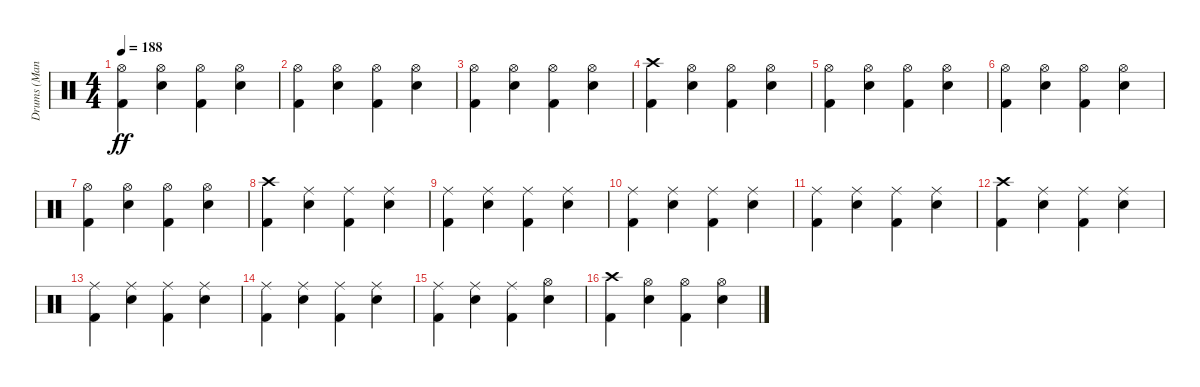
\track ("Drums (Manheim)" "Drums (Man") {instrument percussion}
\staff {score}
\articulation defaults
\ts (4 4)
\tempo 188
\clef neutral
\ks c
("Hi-Hat (open)" "Kick (hit) 2").4{dy ff} ("Hi-Hat (open)" "Electric Snare (hit)").4 ("Hi-Hat (open)" "Kick (hit) 2").4 ("Hi-Hat (open)" "Electric Snare (hit)").4 |
("Hi-Hat (open)" "Kick (hit) 2").4 ("Hi-Hat (open)" "Electric Snare (hit)").4 ("Hi-Hat (open)" "Kick (hit) 2").4 ("Hi-Hat (open)" "Electric Snare (hit)").4 |
("Hi-Hat (open)" "Kick (hit) 2").4 ("Hi-Hat (open)" "Electric Snare (hit)").4 ("Hi-Hat (open)" "Kick (hit) 2").4 ("Hi-Hat (open)" "Electric Snare (hit)").4 |
("Crash high (hit)" "Kick (hit) 2").4 ("Hi-Hat (open)" "Electric Snare (hit)").4 ("Hi-Hat (open)" "Kick (hit) 2").4 ("Hi-Hat (open)" "Electric Snare (hit)").4 |
("Hi-Hat (open)" "Kick (hit) 2").4 ("Hi-Hat (open)" "Electric Snare (hit)").4 ("Hi-Hat (open)" "Kick (hit) 2").4 ("Hi-Hat (open)" "Electric Snare (hit)").4 |
("Hi-Hat (open)" "Kick (hit) 2").4 ("Hi-Hat (open)" "Electric Snare (hit)").4 ("Hi-Hat (open)" "Kick (hit) 2").4 ("Hi-Hat (open)" "Electric Snare (hit)").4 |
("Hi-Hat (open)" "Kick (hit) 2").4 ("Hi-Hat (open)" "Electric Snare (hit)").4 ("Hi-Hat (open)" "Kick (hit) 2").4 ("Hi-Hat (open)" "Electric Snare (hit)").4 |
("Crash high (hit)" "Kick (hit) 2").4 ("Ride (middle)" "Electric Snare (hit)").4 ("Ride (middle)" "Kick (hit) 2").4 ("Ride (middle)" "Electric Snare (hit)").4 |
("Ride (middle)" "Kick (hit) 2").4 ("Ride (middle)" "Electric Snare (hit)").4 ("Ride (middle)" "Kick (hit) 2").4 ("Ride (middle)" "Electric Snare (hit)").4 |
("Ride (middle)" "Kick (hit) 2").4 ("Ride (middle)" "Electric Snare (hit)").4 ("Ride (middle)" "Kick (hit) 2").4 ("Ride (middle)" "Electric Snare (hit)").4 |
("Ride (middle)" "Kick (hit) 2").4 ("Ride (middle)" "Electric Snare (hit)").4 ("Ride (middle)" "Kick (hit) 2").4 ("Ride (middle)" "Electric Snare (hit)").4 |
("Crash high (hit)" "Kick (hit) 2").4 ("Ride (middle)" "Electric Snare (hit)").4 ("Ride (middle)" "Kick (hit) 2").4 ("Ride (middle)" "Electric Snare (hit)").4 |
("Ride (middle)" "Kick (hit) 2").4 ("Ride (middle)" "Electric Snare (hit)").4 ("Ride (middle)" "Kick (hit) 2").4 ("Ride (middle)" "Electric Snare (hit)").4 |
("Ride (middle)" "Kick (hit) 2").4 ("Ride (middle)" "Electric Snare (hit)").4 ("Ride (middle)" "Kick (hit) 2").4 ("Ride (middle)" "Electric Snare (hit)").4 |
("Ride (middle)" "Kick (hit) 2").4 ("Ride (middle)" "Electric Snare (hit)").4 ("Ride (middle)" "Kick (hit) 2").4 ("Hi-Hat (open)" "Electric Snare (hit)").4 |
("Crash high (hit)" "Kick (hit) 2").4 ("Hi-Hat (open)" "Electric Snare (hit)").4 ("Hi-Hat (open)" "Kick (hit) 2").4 ("Hi-Hat (open)" "Electric Snare (hit)").4
